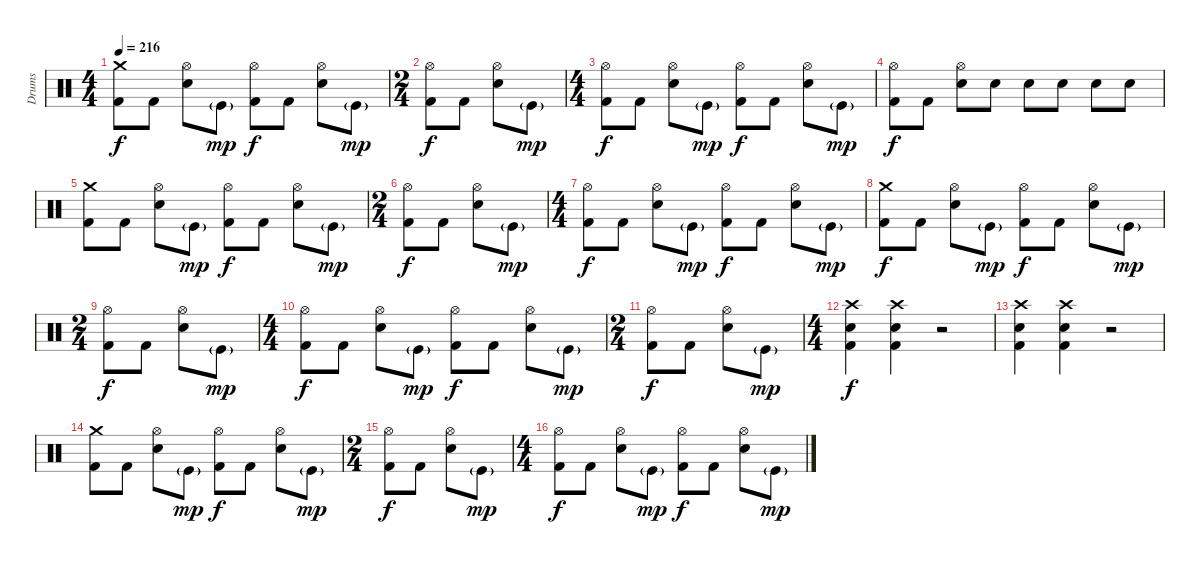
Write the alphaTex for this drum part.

\track ("Drums" "Drums") {instrument percussion}
\staff {score}
\articulation defaults
\ts (4 4)
\tempo 216
\clef neutral
\ks c
("Crash medium (hit)" "Kick (hit) 2").8{dy f} "Kick (hit) 2".8 ("Hi-Hat (open)" "Snare (hit) 2").8 "Kick (hit)"{g}.8{dy mp} ("Hi-Hat (open)" "Kick (hit) 2").8{dy f} "Kick (hit) 2".8 ("Hi-Hat (open)" "Snare (hit) 2").8 "Kick (hit)"{g}.8{dy mp} |
\ts (2 4)
("Hi-Hat (open)" "Kick (hit) 2").8{dy f} "Kick (hit) 2".8 ("Hi-Hat (open)" "Snare (hit) 2").8 "Kick (hit)"{g}.8{dy mp} |
\ts (4 4)
("Hi-Hat (open)" "Kick (hit) 2").8{dy f} "Kick (hit) 2".8 ("Hi-Hat (open)" "Snare (hit) 2").8 "Kick (hit)"{g}.8{dy mp} ("Hi-Hat (open)" "Kick (hit) 2").8{dy f} "Kick (hit) 2".8 ("Hi-Hat (open)" "Snare (hit) 2").8 "Kick (hit)"{g}.8{dy mp} |
("Hi-Hat (open)" "Kick (hit) 2").8{dy f} "Kick (hit) 2".8 ("Hi-Hat (open)" "Electric Snare (hit)").8 "Electric Snare (hit)".8 "Electric Snare (hit)".8 "Electric Snare (hit)".8 "Electric Snare (hit)".8 "Electric Snare (hit)".8 |
("Crash medium (hit)" "Kick (hit) 2").8 "Kick (hit) 2".8 ("Hi-Hat (open)" "Snare (hit) 2").8 "Kick (hit)"{g}.8{dy mp} ("Hi-Hat (open)" "Kick (hit) 2").8{dy f} "Kick (hit) 2".8 ("Hi-Hat (open)" "Snare (hit) 2").8 "Kick (hit)"{g}.8{dy mp} |
\ts (2 4)
("Hi-Hat (open)" "Kick (hit) 2").8{dy f} "Kick (hit) 2".8 ("Hi-Hat (open)" "Snare (hit) 2").8 "Kick (hit)"{g}.8{dy mp} |
\ts (4 4)
("Hi-Hat (open)" "Kick (hit) 2").8{dy f} "Kick (hit) 2".8 ("Hi-Hat (open)" "Snare (hit) 2").8 "Kick (hit)"{g}.8{dy mp} ("Hi-Hat (open)" "Kick (hit) 2").8{dy f} "Kick (hit) 2".8 ("Hi-Hat (open)" "Snare (hit) 2").8 "Kick (hit)"{g}.8{dy mp} |
("Crash medium (hit)" "Kick (hit) 2").8{dy f} "Kick (hit) 2".8 ("Hi-Hat (open)" "Snare (hit) 2").8 "Kick (hit)"{g}.8{dy mp} ("Hi-Hat (open)" "Kick (hit) 2").8{dy f} "Kick (hit) 2".8 ("Hi-Hat (open)" "Snare (hit) 2").8 "Kick (hit)"{g}.8{dy mp} |
\ts (2 4)
("Hi-Hat (open)" "Kick (hit) 2").8{dy f} "Kick (hit) 2".8 ("Hi-Hat (open)" "Snare (hit) 2").8 "Kick (hit)"{g}.8{dy mp} |
\ts (4 4)
("Hi-Hat (open)" "Kick (hit) 2").8{dy f} "Kick (hit) 2".8 ("Hi-Hat (open)" "Snare (hit) 2").8 "Kick (hit)"{g}.8{dy mp} ("Hi-Hat (open)" "Kick (hit) 2").8{dy f} "Kick (hit) 2".8 ("Hi-Hat (open)" "Snare (hit) 2").8 "Kick (hit)"{g}.8{dy mp} |
\ts (2 4)
("Hi-Hat (open)" "Kick (hit) 2").8{dy f} "Kick (hit) 2".8 ("Hi-Hat (open)" "Snare (hit) 2").8 "Kick (hit)"{g}.8{dy mp} |
\ts (4 4)
("Crash high (hit)" "Snare (hit) 2" "Kick (hit) 2").4{dy f} ("Crash high (hit)" "Snare (hit) 2" "Kick (hit) 2").4 r.2 |
("Crash high (hit)" "Snare (hit) 2" "Kick (hit) 2").4 ("Crash high (hit)" "Snare (hit) 2" "Kick (hit) 2").4 r.2 |
("Crash medium (hit)" "Kick (hit) 2").8 "Kick (hit) 2".8 ("Hi-Hat (open)" "Snare (hit) 2").8 "Kick (hit)"{g}.8{dy mp} ("Hi-Hat (open)" "Kick (hit) 2").8{dy f} "Kick (hit) 2".8 ("Hi-Hat (open)" "Snare (hit) 2").8 "Kick (hit)"{g}.8{dy mp} |
\ts (2 4)
("Hi-Hat (open)" "Kick (hit) 2").8{dy f} "Kick (hit) 2".8 ("Hi-Hat (open)" "Snare (hit) 2").8 "Kick (hit)"{g}.8{dy mp} |
\ts (4 4)
("Hi-Hat (open)" "Kick (hit) 2").8{dy f} "Kick (hit) 2".8 ("Hi-Hat (open)" "Snare (hit) 2").8 "Kick (hit)"{g}.8{dy mp} ("Hi-Hat (open)" "Kick (hit) 2").8{dy f} "Kick (hit) 2".8 ("Hi-Hat (open)" "Snare (hit) 2").8 "Kick (hit)"{g}.8{dy mp}
